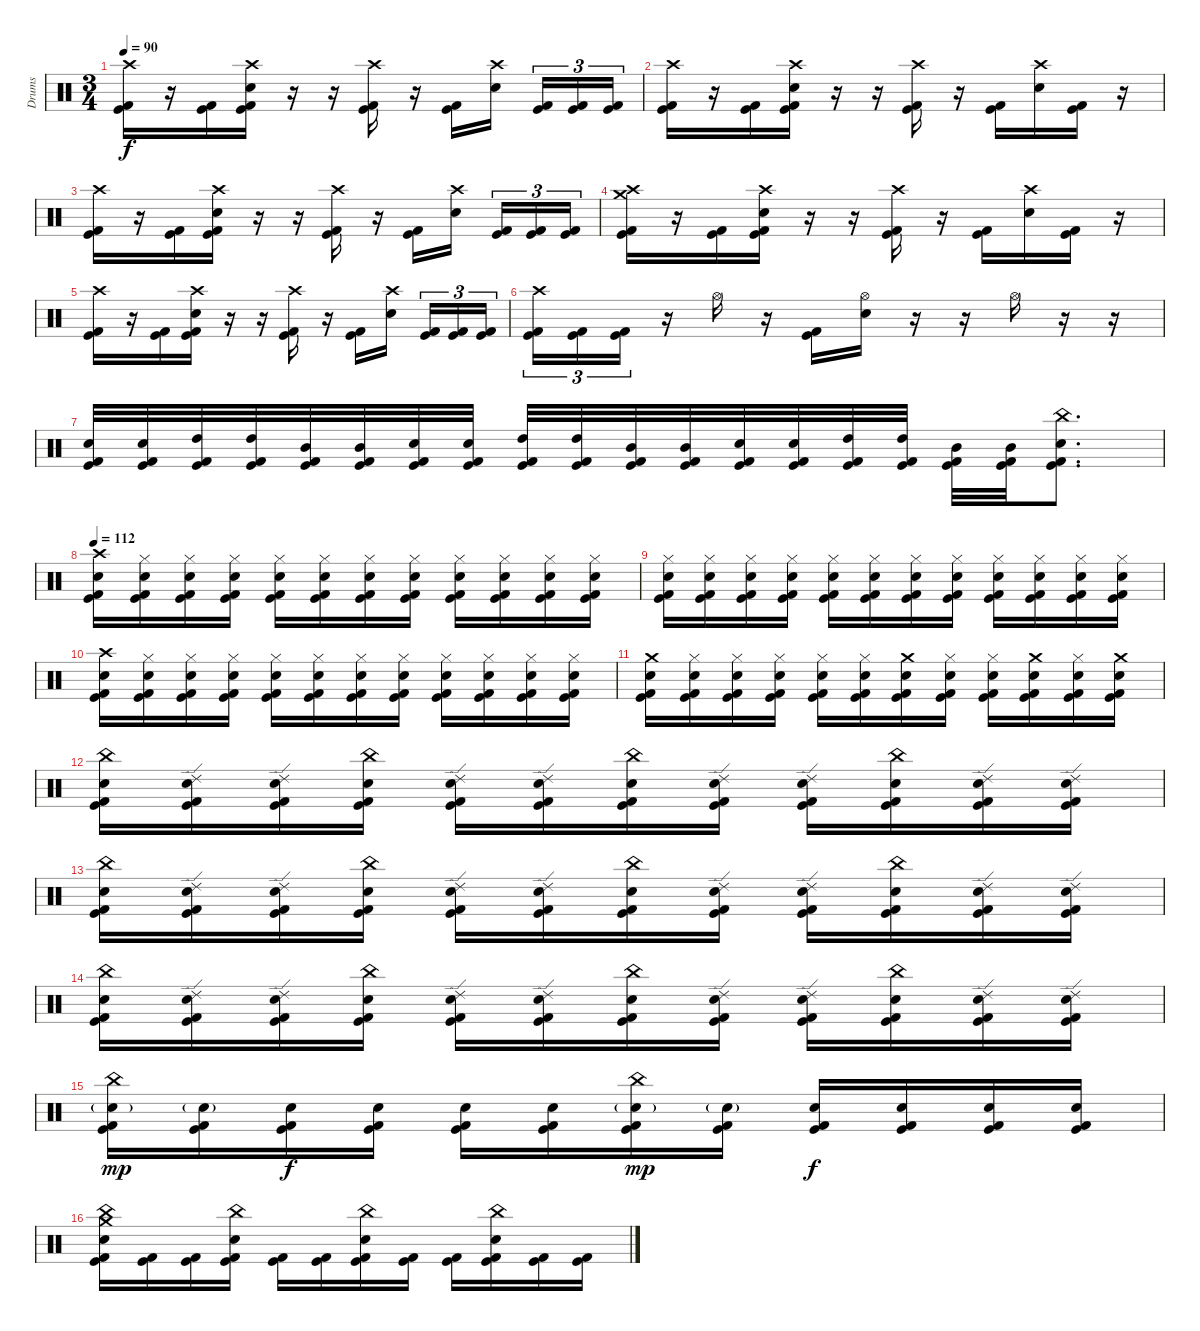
\track ("Drums" "Drums") {instrument percussion}
\staff {score}
\articulation defaults
\ts (3 4)
\tempo 90
\clef neutral
\ks c
("Crash high (hit)" "Kick (hit)" "Kick (hit) 2").16{dy f} r.16 ("Kick (hit)" "Kick (hit) 2").16 ("Crash high (hit)" "Electric Snare (hit)" "Kick (hit)" "Kick (hit) 2").16 r.16 r.16 ("Crash high (hit)" "Kick (hit)" "Kick (hit) 2").16 r.16 ("Kick (hit)" "Kick (hit) 2").16 ("Crash high (hit)" "Electric Snare (hit)").16{beam splitsecondary} ("Kick (hit)" "Kick (hit) 2").16{tu (3 2)} ("Kick (hit)" "Kick (hit) 2").16{tu (3 2)} ("Kick (hit)" "Kick (hit) 2").16{tu (3 2)} |
("Crash high (hit)" "Kick (hit)" "Kick (hit) 2").16 r.16 ("Kick (hit)" "Kick (hit) 2").16 ("Crash high (hit)" "Electric Snare (hit)" "Kick (hit)" "Kick (hit) 2").16 r.16 r.16 ("Crash high (hit)" "Kick (hit)" "Kick (hit) 2").16 r.16 ("Kick (hit)" "Kick (hit) 2").16 ("Crash high (hit)" "Electric Snare (hit)").16 ("Kick (hit)" "Kick (hit) 2").16 r.16 |
("Crash high (hit)" "Kick (hit)" "Kick (hit) 2").16 r.16 ("Kick (hit)" "Kick (hit) 2").16 ("Crash high (hit)" "Electric Snare (hit)" "Kick (hit)" "Kick (hit) 2").16 r.16 r.16 ("Crash high (hit)" "Kick (hit)" "Kick (hit) 2").16 r.16 ("Kick (hit)" "Kick (hit) 2").16 ("Crash high (hit)" "Electric Snare (hit)").16{beam splitsecondary} ("Kick (hit)" "Kick (hit) 2").16{tu (3 2)} ("Kick (hit)" "Kick (hit) 2").16{tu (3 2)} ("Kick (hit)" "Kick (hit) 2").16{tu (3 2)} |
("Crash medium (hit)" "Crash high (hit)" "Kick (hit)" "Kick (hit) 2").16 r.16 ("Kick (hit)" "Kick (hit) 2").16 ("Crash high (hit)" "Electric Snare (hit)" "Kick (hit)" "Kick (hit) 2").16 r.16 r.16 ("Crash high (hit)" "Kick (hit)" "Kick (hit) 2").16 r.16 ("Kick (hit)" "Kick (hit) 2").16 ("Crash high (hit)" "Electric Snare (hit)").16 ("Kick (hit)" "Kick (hit) 2").16 r.16 |
("Crash high (hit)" "Kick (hit)" "Kick (hit) 2").16 r.16 ("Kick (hit)" "Kick (hit) 2").16 ("Crash high (hit)" "Electric Snare (hit)" "Kick (hit)" "Kick (hit) 2").16 r.16 r.16 ("Crash high (hit)" "Kick (hit)" "Kick (hit) 2").16 r.16 ("Kick (hit)" "Kick (hit) 2").16 ("Crash high (hit)" "Electric Snare (hit)").16{beam splitsecondary} ("Kick (hit)" "Kick (hit) 2").16{tu (3 2)} ("Kick (hit)" "Kick (hit) 2").16{tu (3 2)} ("Kick (hit)" "Kick (hit) 2").16{tu (3 2)} |
("Crash high (hit)" "Kick (hit)" "Kick (hit) 2").16{tu (3 2)} ("Kick (hit)" "Kick (hit) 2").16{tu (3 2)} ("Kick (hit)" "Kick (hit) 2").16{tu (3 2)} r.16 "Hi-Hat (open)".16 r.16 ("Kick (hit)" "Kick (hit) 2").16 ("Hi-Hat (open)" "Electric Snare (hit)").16 r.16 r.16 "Hi-Hat (open)".16 r.16 r.16 |
("Electric Snare (hit)" "Kick (hit)" "Kick (hit) 2").32 ("Electric Snare (hit)" "Kick (hit)" "Kick (hit) 2").32 ("High Tom (hit)" "Kick (hit)" "Kick (hit) 2").32 ("High Tom (hit)" "Kick (hit)" "Kick (hit) 2").32 ("Mid Tom (hit)" "Kick (hit)" "Kick (hit) 2").32 ("Mid Tom (hit)" "Kick (hit)" "Kick (hit) 2").32 ("Electric Snare (hit)" "Kick (hit)" "Kick (hit) 2").32 ("Electric Snare (hit)" "Kick (hit)" "Kick (hit) 2").32 ("High Tom (hit)" "Kick (hit)" "Kick (hit) 2").32 ("High Tom (hit)" "Kick (hit)" "Kick (hit) 2").32 ("Mid Tom (hit)" "Kick (hit)" "Kick (hit) 2").32 ("Mid Tom (hit)" "Kick (hit)" "Kick (hit) 2").32 ("Electric Snare (hit)" "Kick (hit)" "Kick (hit) 2").32 ("Electric Snare (hit)" "Kick (hit)" "Kick (hit) 2").32 ("High Tom (hit)" "Kick (hit)" "Kick (hit) 2").32 ("High Tom (hit)" "Kick (hit)" "Kick (hit) 2").32 ("Mid Tom (hit)" "Kick (hit)" "Kick (hit) 2").32 ("Mid Tom (hit)" "Kick (hit)" "Kick (hit) 2").32 ("China (hit)" "Electric Snare (hit)" "Kick (hit)" "Kick (hit) 2").8{d} |
\tempo 100
\tempo 112
("Crash high (hit)" "Electric Snare (hit)" "Kick (hit)" "Kick (hit) 2").16 ("Hi-Hat (closed)" "Electric Snare (hit)" "Kick (hit)" "Kick (hit) 2").16 ("Hi-Hat (closed)" "Electric Snare (hit)" "Kick (hit)" "Kick (hit) 2").16 ("Hi-Hat (closed)" "Electric Snare (hit)" "Kick (hit)" "Kick (hit) 2").16 ("Hi-Hat (closed)" "Electric Snare (hit)" "Kick (hit)" "Kick (hit) 2").16 ("Hi-Hat (closed)" "Electric Snare (hit)" "Kick (hit)" "Kick (hit) 2").16 ("Hi-Hat (closed)" "Electric Snare (hit)" "Kick (hit)" "Kick (hit) 2").16 ("Hi-Hat (closed)" "Electric Snare (hit)" "Kick (hit)" "Kick (hit) 2").16 ("Hi-Hat (closed)" "Electric Snare (hit)" "Kick (hit)" "Kick (hit) 2").16 ("Hi-Hat (closed)" "Electric Snare (hit)" "Kick (hit)" "Kick (hit) 2").16 ("Hi-Hat (closed)" "Electric Snare (hit)" "Kick (hit)" "Kick (hit) 2").16 ("Hi-Hat (closed)" "Electric Snare (hit)" "Kick (hit)" "Kick (hit) 2").16 |
("Hi-Hat (closed)" "Electric Snare (hit)" "Kick (hit)" "Kick (hit) 2").16 ("Hi-Hat (closed)" "Electric Snare (hit)" "Kick (hit)" "Kick (hit) 2").16 ("Hi-Hat (closed)" "Electric Snare (hit)" "Kick (hit)" "Kick (hit) 2").16 ("Hi-Hat (closed)" "Electric Snare (hit)" "Kick (hit)" "Kick (hit) 2").16 ("Hi-Hat (closed)" "Electric Snare (hit)" "Kick (hit)" "Kick (hit) 2").16 ("Hi-Hat (closed)" "Electric Snare (hit)" "Kick (hit)" "Kick (hit) 2").16 ("Hi-Hat (closed)" "Electric Snare (hit)" "Kick (hit)" "Kick (hit) 2").16 ("Hi-Hat (closed)" "Electric Snare (hit)" "Kick (hit)" "Kick (hit) 2").16 ("Hi-Hat (closed)" "Electric Snare (hit)" "Kick (hit)" "Kick (hit) 2").16 ("Hi-Hat (closed)" "Electric Snare (hit)" "Kick (hit)" "Kick (hit) 2").16 ("Hi-Hat (closed)" "Electric Snare (hit)" "Kick (hit)" "Kick (hit) 2").16 ("Hi-Hat (closed)" "Electric Snare (hit)" "Kick (hit)" "Kick (hit) 2").16 |
("Crash high (hit)" "Electric Snare (hit)" "Kick (hit)" "Kick (hit) 2").16 ("Hi-Hat (closed)" "Electric Snare (hit)" "Kick (hit)" "Kick (hit) 2").16 ("Hi-Hat (closed)" "Electric Snare (hit)" "Kick (hit)" "Kick (hit) 2").16 ("Hi-Hat (closed)" "Electric Snare (hit)" "Kick (hit)" "Kick (hit) 2").16 ("Hi-Hat (closed)" "Electric Snare (hit)" "Kick (hit)" "Kick (hit) 2").16 ("Hi-Hat (closed)" "Electric Snare (hit)" "Kick (hit)" "Kick (hit) 2").16 ("Hi-Hat (closed)" "Electric Snare (hit)" "Kick (hit)" "Kick (hit) 2").16 ("Hi-Hat (closed)" "Electric Snare (hit)" "Kick (hit)" "Kick (hit) 2").16 ("Hi-Hat (closed)" "Electric Snare (hit)" "Kick (hit)" "Kick (hit) 2").16 ("Hi-Hat (closed)" "Electric Snare (hit)" "Kick (hit)" "Kick (hit) 2").16 ("Hi-Hat (closed)" "Electric Snare (hit)" "Kick (hit)" "Kick (hit) 2").16 ("Hi-Hat (closed)" "Electric Snare (hit)" "Kick (hit)" "Kick (hit) 2").16 |
("Crash medium (hit)" "Electric Snare (hit)" "Kick (hit)" "Kick (hit) 2").16 ("Hi-Hat (closed)" "Electric Snare (hit)" "Kick (hit)" "Kick (hit) 2").16 ("Hi-Hat (closed)" "Electric Snare (hit)" "Kick (hit)" "Kick (hit) 2").16 ("Hi-Hat (closed)" "Electric Snare (hit)" "Kick (hit)" "Kick (hit) 2").16 ("Hi-Hat (closed)" "Electric Snare (hit)" "Kick (hit)" "Kick (hit) 2").16 ("Hi-Hat (closed)" "Electric Snare (hit)" "Kick (hit)" "Kick (hit) 2").16 ("Crash medium (hit)" "Electric Snare (hit)" "Kick (hit)" "Kick (hit) 2").16 ("Hi-Hat (closed)" "Electric Snare (hit)" "Kick (hit)" "Kick (hit) 2").16 ("Hi-Hat (closed)" "Electric Snare (hit)" "Kick (hit)" "Kick (hit) 2").16 ("Crash medium (hit)" "Electric Snare (hit)" "Kick (hit)" "Kick (hit) 2").16 ("Hi-Hat (closed)" "Electric Snare (hit)" "Kick (hit)" "Kick (hit) 2").16 ("Crash medium (hit)" "Electric Snare (hit)" "Kick (hit)" "Kick (hit) 2").16 |
("China (hit)" "Electric Snare (hit)" "Kick (hit)" "Kick (hit) 2").16 ("Ride (edge) 2" "Electric Snare (hit)" "Kick (hit)" "Kick (hit) 2").16 ("Ride (edge) 2" "Electric Snare (hit)" "Kick (hit)" "Kick (hit) 2").16 ("China (hit)" "Electric Snare (hit)" "Kick (hit)" "Kick (hit) 2").16 ("Ride (edge) 2" "Electric Snare (hit)" "Kick (hit)" "Kick (hit) 2").16 ("Ride (edge) 2" "Electric Snare (hit)" "Kick (hit)" "Kick (hit) 2").16 ("China (hit)" "Electric Snare (hit)" "Kick (hit)" "Kick (hit) 2").16 ("Ride (edge) 2" "Electric Snare (hit)" "Kick (hit)" "Kick (hit) 2").16 ("Ride (edge) 2" "Electric Snare (hit)" "Kick (hit)" "Kick (hit) 2").16 ("China (hit)" "Electric Snare (hit)" "Kick (hit)" "Kick (hit) 2").16 ("Ride (edge) 2" "Electric Snare (hit)" "Kick (hit)" "Kick (hit) 2").16 ("Ride (edge) 2" "Electric Snare (hit)" "Kick (hit)" "Kick (hit) 2").16 |
("China (hit)" "Electric Snare (hit)" "Kick (hit)" "Kick (hit) 2").16 ("Ride (edge) 2" "Electric Snare (hit)" "Kick (hit)" "Kick (hit) 2").16 ("Ride (edge) 2" "Electric Snare (hit)" "Kick (hit)" "Kick (hit) 2").16 ("China (hit)" "Electric Snare (hit)" "Kick (hit)" "Kick (hit) 2").16 ("Ride (edge) 2" "Electric Snare (hit)" "Kick (hit)" "Kick (hit) 2").16 ("Ride (edge) 2" "Electric Snare (hit)" "Kick (hit)" "Kick (hit) 2").16 ("China (hit)" "Electric Snare (hit)" "Kick (hit)" "Kick (hit) 2").16 ("Ride (edge) 2" "Electric Snare (hit)" "Kick (hit)" "Kick (hit) 2").16 ("Ride (edge) 2" "Electric Snare (hit)" "Kick (hit)" "Kick (hit) 2").16 ("China (hit)" "Electric Snare (hit)" "Kick (hit)" "Kick (hit) 2").16 ("Ride (edge) 2" "Electric Snare (hit)" "Kick (hit)" "Kick (hit) 2").16 ("Ride (edge) 2" "Electric Snare (hit)" "Kick (hit)" "Kick (hit) 2").16 |
("China (hit)" "Electric Snare (hit)" "Kick (hit)" "Kick (hit) 2").16 ("Ride (edge) 2" "Electric Snare (hit)" "Kick (hit)" "Kick (hit) 2").16 ("Ride (edge) 2" "Electric Snare (hit)" "Kick (hit)" "Kick (hit) 2").16 ("China (hit)" "Electric Snare (hit)" "Kick (hit)" "Kick (hit) 2").16 ("Ride (edge) 2" "Electric Snare (hit)" "Kick (hit)" "Kick (hit) 2").16 ("Ride (edge) 2" "Electric Snare (hit)" "Kick (hit)" "Kick (hit) 2").16 ("China (hit)" "Electric Snare (hit)" "Kick (hit)" "Kick (hit) 2").16 ("Ride (edge) 2" "Electric Snare (hit)" "Kick (hit)" "Kick (hit) 2").16 ("Ride (edge) 2" "Electric Snare (hit)" "Kick (hit)" "Kick (hit) 2").16 ("China (hit)" "Electric Snare (hit)" "Kick (hit)" "Kick (hit) 2").16 ("Ride (edge) 2" "Electric Snare (hit)" "Kick (hit)" "Kick (hit) 2").16 ("Ride (edge) 2" "Electric Snare (hit)" "Kick (hit)" "Kick (hit) 2").16 |
("China (hit)" "Electric Snare (hit)"{g} "Kick (hit)" "Kick (hit) 2").16{dy mp} ("Electric Snare (hit)"{g} "Kick (hit)" "Kick (hit) 2").16 ("Electric Snare (hit)" "Kick (hit)" "Kick (hit) 2").16{dy f} ("Electric Snare (hit)" "Kick (hit)" "Kick (hit) 2").16 ("Electric Snare (hit)" "Kick (hit)" "Kick (hit) 2").16 ("Electric Snare (hit)" "Kick (hit)" "Kick (hit) 2").16 ("China (hit)" "Electric Snare (hit)"{g} "Kick (hit)" "Kick (hit) 2").16{dy mp} ("Electric Snare (hit)"{g} "Kick (hit)" "Kick (hit) 2").16 ("Electric Snare (hit)" "Kick (hit)" "Kick (hit) 2").16{dy f} ("Electric Snare (hit)" "Kick (hit)" "Kick (hit) 2").16 ("Electric Snare (hit)" "Kick (hit)" "Kick (hit) 2").16 ("Electric Snare (hit)" "Kick (hit)" "Kick (hit) 2").16 |
("Crash medium (hit)" "China (hit)" "Electric Snare (hit)" "Kick (hit)" "Kick (hit) 2").16 ("Kick (hit)" "Kick (hit) 2").16 ("Kick (hit)" "Kick (hit) 2").16 ("China (hit)" "Electric Snare (hit)" "Kick (hit)" "Kick (hit) 2").16 ("Kick (hit)" "Kick (hit) 2").16 ("Kick (hit)" "Kick (hit) 2").16 ("China (hit)" "Electric Snare (hit)" "Kick (hit)" "Kick (hit) 2").16 ("Kick (hit)" "Kick (hit) 2").16 ("Kick (hit)" "Kick (hit) 2").16 ("China (hit)" "Electric Snare (hit)" "Kick (hit)" "Kick (hit) 2").16 ("Kick (hit)" "Kick (hit) 2").16 ("Kick (hit)" "Kick (hit) 2").16
